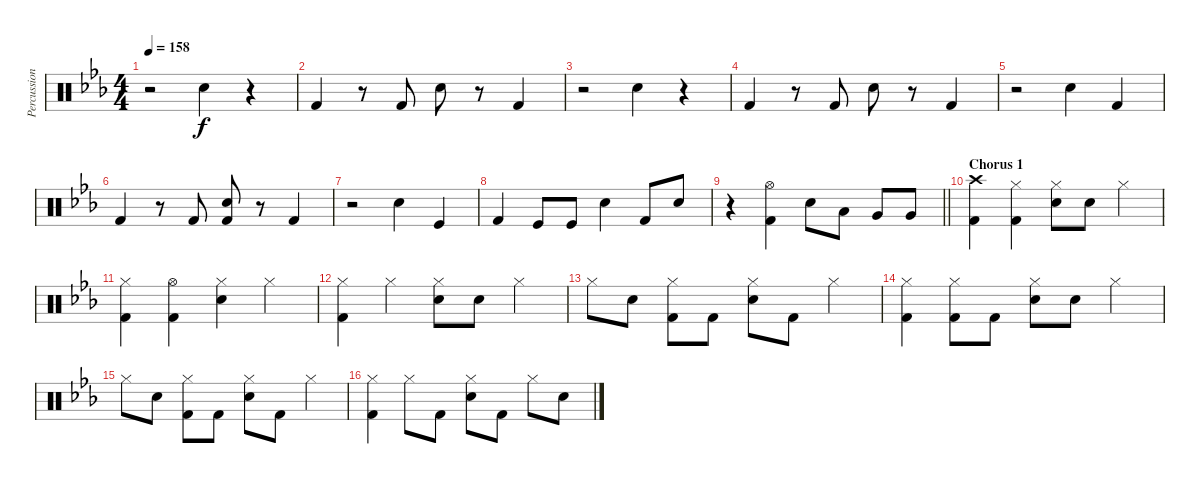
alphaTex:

\track ("Percussion" "Percussion") {instrument percussion}
\staff {score}
\articulation defaults
\ts (4 4)
\tempo 158
\clef neutral
\ks eb
r.2{dy f} "Snare (hit) 2".4 r.4 |
"Kick (hit) 2".4 r.8 "Kick (hit) 2".8 "Snare (hit) 2".8 r.8 "Kick (hit) 2".4 |
r.2 "Snare (hit) 2".4 r.4 |
"Kick (hit) 2".4 r.8 "Kick (hit) 2".8 "Snare (hit) 2".8 r.8 "Kick (hit) 2".4 |
r.2 "Snare (hit) 2".4 "Kick (hit) 2".4 |
"Kick (hit) 2".4 r.8 "Kick (hit) 2".8 ("Kick (hit) 2" "Snare (hit) 2").8 r.8 "Kick (hit) 2".4 |
r.2 "Snare (hit) 2".4 "Kick (hit)".4 |
"Kick (hit) 2".4 "Kick (hit)".8 "Kick (hit)".8 "Snare (hit) 2".4 "Kick (hit) 2".8 "Snare (hit) 2".8 |
\barLineRight lightlight
r.4 ("Kick (hit) 2" "Hi-Hat (open)").4 "Snare (hit) 2".8 "Low Tom (hit)".8 "Very Low Tom (hit)".8 "Very Low Tom (hit)".8 |
\section ("" "Chorus 1")
("Crash high (hit)" "Kick (hit) 2").4 ("Hi-Hat (closed)" "Kick (hit) 2").4 ("Hi-Hat (closed)" "Snare (hit) 2").8 "Snare (hit) 2".8 "Hi-Hat (closed)".4 |
("Hi-Hat (closed)" "Kick (hit) 2").4 ("Hi-Hat (open)" "Kick (hit) 2").4 ("Hi-Hat (closed)" "Snare (hit) 2").4 "Hi-Hat (closed)".4 |
("Hi-Hat (closed)" "Kick (hit) 2").4 "Hi-Hat (closed)".4 ("Hi-Hat (closed)" "Snare (hit) 2").8 "Snare (hit) 2".8 "Hi-Hat (closed)".4 |
"Hi-Hat (closed)".8 "Snare (hit) 2".8 ("Hi-Hat (closed)" "Kick (hit) 2").8 "Kick (hit) 2".8 ("Hi-Hat (closed)" "Snare (hit) 2").8 "Kick (hit) 2".8 "Hi-Hat (closed)".4 |
("Hi-Hat (closed)" "Kick (hit) 2").4 ("Hi-Hat (closed)" "Kick (hit) 2").8 "Kick (hit) 2".8 ("Hi-Hat (closed)" "Snare (hit) 2").8 "Snare (hit) 2".8 "Hi-Hat (closed)".4 |
"Hi-Hat (closed)".8 "Snare (hit) 2".8 ("Hi-Hat (closed)" "Kick (hit) 2").8 "Kick (hit) 2".8 ("Hi-Hat (closed)" "Snare (hit) 2").8 "Kick (hit) 2".8 "Hi-Hat (closed)".4 |
("Hi-Hat (closed)" "Kick (hit) 2").4 "Hi-Hat (closed)".8 "Kick (hit) 2".8 ("Hi-Hat (closed)" "Snare (hit) 2").8 "Kick (hit) 2".8 "Hi-Hat (closed)".8 "Snare (hit) 2".8
